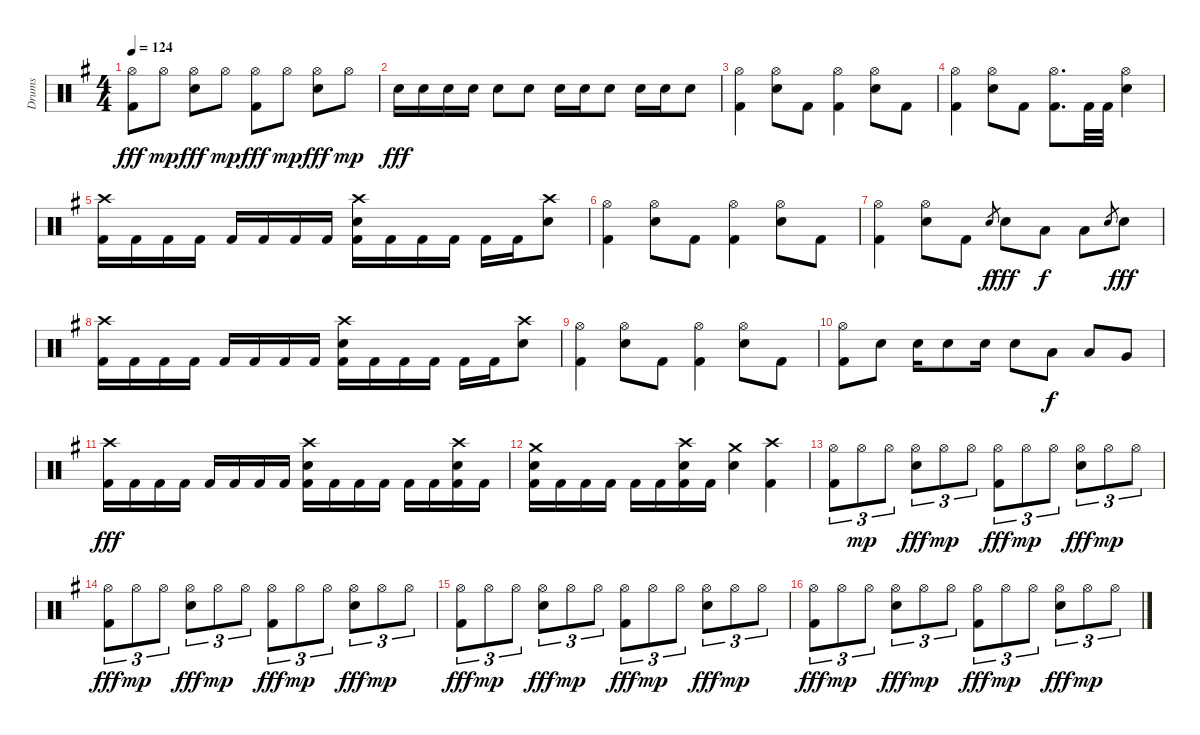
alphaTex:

\track ("Drums" "Drums") {instrument percussion}
\staff {score}
\articulation defaults
\ts (4 4)
\tempo 124
\clef neutral
\ks g
("Hi-Hat (open)" "Kick (hit) 2").8{dy fff} "Hi-Hat (open)".8{dy mp} ("Hi-Hat (open)" "Electric Snare (hit)").8{dy fff} "Hi-Hat (open)".8{dy mp} ("Hi-Hat (open)" "Kick (hit) 2").8{dy fff} "Hi-Hat (open)".8{dy mp} ("Hi-Hat (open)" "Electric Snare (hit)").8{dy fff} "Hi-Hat (open)".8{dy mp} |
"Electric Snare (hit)".16{dy fff} "Electric Snare (hit)".16 "Electric Snare (hit)".16 "Electric Snare (hit)".16 "Electric Snare (hit)".8 "Electric Snare (hit)".8 "Electric Snare (hit)".16 "Electric Snare (hit)".16 "Electric Snare (hit)".8 "Electric Snare (hit)".16 "Electric Snare (hit)".16 "Electric Snare (hit)".8 |
("Hi-Hat (open)" "Kick (hit) 2").4 ("Hi-Hat (open)" "Electric Snare (hit)").8 "Kick (hit) 2".8 ("Hi-Hat (open)" "Kick (hit) 2").4 ("Hi-Hat (open)" "Electric Snare (hit)").8 "Kick (hit) 2".8 |
("Hi-Hat (open)" "Kick (hit) 2").4 ("Hi-Hat (open)" "Electric Snare (hit)").8 "Kick (hit) 2".8 ("Hi-Hat (open)" "Kick (hit) 2").8{d} "Kick (hit) 2".32 "Kick (hit) 2".32 ("Hi-Hat (open)" "Electric Snare (hit)").4 |
("Crash high (hit)" "Kick (hit) 2").16 "Kick (hit) 2".16 "Kick (hit) 2".16 "Kick (hit) 2".16 "Kick (hit) 2".16 "Kick (hit) 2".16 "Kick (hit) 2".16 "Kick (hit) 2".16 ("Crash high (hit)" "Electric Snare (hit)" "Kick (hit) 2").16 "Kick (hit) 2".16 "Kick (hit) 2".16 "Kick (hit) 2".16 "Kick (hit) 2".16 "Kick (hit) 2".16 ("Crash high (hit)" "Electric Snare (hit)").8 |
("Hi-Hat (open)" "Kick (hit) 2").4 ("Hi-Hat (open)" "Electric Snare (hit)").8 "Kick (hit) 2".8 ("Hi-Hat (open)" "Kick (hit) 2").4 ("Hi-Hat (open)" "Electric Snare (hit)").8 "Kick (hit) 2".8 |
("Hi-Hat (open)" "Kick (hit) 2").4 ("Hi-Hat (open)" "Electric Snare (hit)").8 "Kick (hit) 2".8 "Electric Snare (hit)".8{gr dy f} "Electric Snare (hit)".8{dy fff} "Low Tom (hit)".8{dy f} "Low Tom (hit)".8 "Electric Snare (hit)".8{gr} "Electric Snare (hit)".8{dy fff} |
("Crash high (hit)" "Kick (hit) 2").16 "Kick (hit) 2".16 "Kick (hit) 2".16 "Kick (hit) 2".16 "Kick (hit) 2".16 "Kick (hit) 2".16 "Kick (hit) 2".16 "Kick (hit) 2".16 ("Crash high (hit)" "Electric Snare (hit)" "Kick (hit) 2").16 "Kick (hit) 2".16 "Kick (hit) 2".16 "Kick (hit) 2".16 "Kick (hit) 2".16 "Kick (hit) 2".16 ("Crash high (hit)" "Electric Snare (hit)").8 |
("Hi-Hat (open)" "Kick (hit) 2").4 ("Hi-Hat (open)" "Electric Snare (hit)").8 "Kick (hit) 2".8 ("Hi-Hat (open)" "Kick (hit) 2").4 ("Hi-Hat (open)" "Electric Snare (hit)").8 "Kick (hit) 2".8 |
("Hi-Hat (open)" "Kick (hit) 2").8 "Electric Snare (hit)".8 "Electric Snare (hit)".16 "Electric Snare (hit)".8 "Electric Snare (hit)".16 "Electric Snare (hit)".8 "Low Tom (hit)".8{dy f} "Low Tom (hit)".8 "Very Low Tom (hit)".8 |
("Crash high (hit)" "Kick (hit) 2").16{dy fff} "Kick (hit) 2".16 "Kick (hit) 2".16 "Kick (hit) 2".16 "Kick (hit) 2".16 "Kick (hit) 2".16 "Kick (hit) 2".16 "Kick (hit) 2".16 ("Crash high (hit)" "Electric Snare (hit)" "Kick (hit) 2").16 "Kick (hit) 2".16 "Kick (hit) 2".16 "Kick (hit) 2".16 "Kick (hit) 2".16 "Kick (hit) 2".16 ("Crash high (hit)" "Electric Snare (hit)" "Kick (hit) 2").16 "Kick (hit) 2".16 |
("Crash medium (hit)" "Electric Snare (hit)" "Kick (hit) 2").16 "Kick (hit) 2".16 "Kick (hit) 2".16 "Kick (hit) 2".16 "Kick (hit) 2".16 "Kick (hit) 2".16 ("Crash high (hit)" "Electric Snare (hit)" "Kick (hit) 2").16 "Kick (hit) 2".16 ("Crash medium (hit)" "Electric Snare (hit)").4 ("Crash high (hit)" "Kick (hit) 2").4 |
("Hi-Hat (open)" "Kick (hit) 2").8{tu (3 2)} "Hi-Hat (open)".8{tu (3 2) dy mp} "Hi-Hat (open)".8{tu (3 2)} ("Hi-Hat (open)" "Electric Snare (hit)").8{tu (3 2) dy fff} "Hi-Hat (open)".8{tu (3 2) dy mp} "Hi-Hat (open)".8{tu (3 2)} ("Hi-Hat (open)" "Kick (hit) 2").8{tu (3 2) dy fff} "Hi-Hat (open)".8{tu (3 2) dy mp} "Hi-Hat (open)".8{tu (3 2)} ("Hi-Hat (open)" "Electric Snare (hit)").8{tu (3 2) dy fff} "Hi-Hat (open)".8{tu (3 2) dy mp} "Hi-Hat (open)".8{tu (3 2)} |
("Hi-Hat (open)" "Kick (hit) 2").8{tu (3 2) dy fff} "Hi-Hat (open)".8{tu (3 2) dy mp} "Hi-Hat (open)".8{tu (3 2)} ("Hi-Hat (open)" "Electric Snare (hit)").8{tu (3 2) dy fff} "Hi-Hat (open)".8{tu (3 2) dy mp} "Hi-Hat (open)".8{tu (3 2)} ("Hi-Hat (open)" "Kick (hit) 2").8{tu (3 2) dy fff} "Hi-Hat (open)".8{tu (3 2) dy mp} "Hi-Hat (open)".8{tu (3 2)} ("Hi-Hat (open)" "Electric Snare (hit)").8{tu (3 2) dy fff} "Hi-Hat (open)".8{tu (3 2) dy mp} "Hi-Hat (open)".8{tu (3 2)} |
("Hi-Hat (open)" "Kick (hit) 2").8{tu (3 2) dy fff} "Hi-Hat (open)".8{tu (3 2) dy mp} "Hi-Hat (open)".8{tu (3 2)} ("Hi-Hat (open)" "Electric Snare (hit)").8{tu (3 2) dy fff} "Hi-Hat (open)".8{tu (3 2) dy mp} "Hi-Hat (open)".8{tu (3 2)} ("Hi-Hat (open)" "Kick (hit) 2").8{tu (3 2) dy fff} "Hi-Hat (open)".8{tu (3 2) dy mp} "Hi-Hat (open)".8{tu (3 2)} ("Hi-Hat (open)" "Electric Snare (hit)").8{tu (3 2) dy fff} "Hi-Hat (open)".8{tu (3 2) dy mp} "Hi-Hat (open)".8{tu (3 2)} |
("Hi-Hat (open)" "Kick (hit) 2").8{tu (3 2) dy fff} "Hi-Hat (open)".8{tu (3 2) dy mp} "Hi-Hat (open)".8{tu (3 2)} ("Hi-Hat (open)" "Electric Snare (hit)").8{tu (3 2) dy fff} "Hi-Hat (open)".8{tu (3 2) dy mp} "Hi-Hat (open)".8{tu (3 2)} ("Hi-Hat (open)" "Kick (hit) 2").8{tu (3 2) dy fff} "Hi-Hat (open)".8{tu (3 2) dy mp} "Hi-Hat (open)".8{tu (3 2)} ("Hi-Hat (open)" "Electric Snare (hit)").8{tu (3 2) dy fff} "Hi-Hat (open)".8{tu (3 2) dy mp} "Hi-Hat (open)".8{tu (3 2)}
